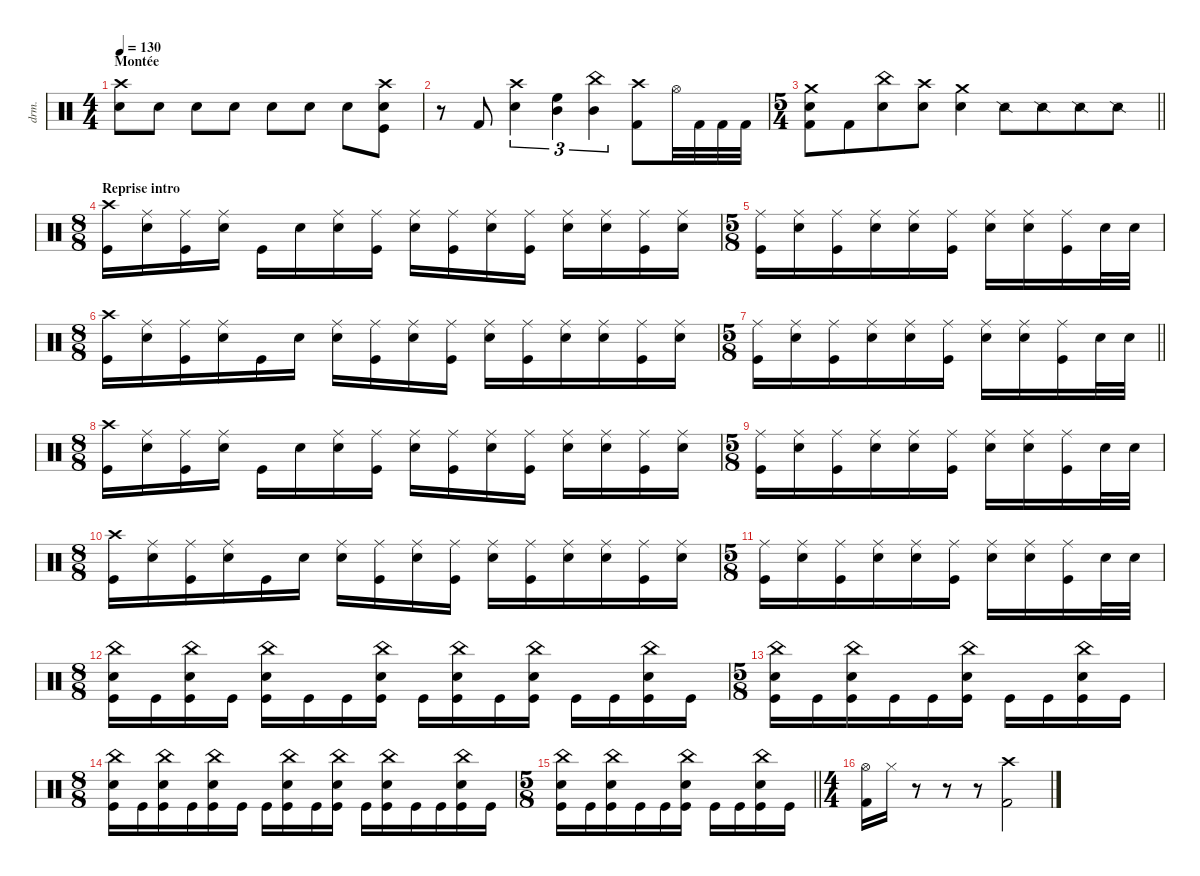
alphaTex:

\defaultSystemsLayout 4
\hideDynamics
\bracketExtendMode nobrackets
\track ("Manouche" "drm.") {instrument percussion}
\staff {score}
\articulation defaults
\ts (4 4)
\section ("" "Montée")
\tempo 130
\clef neutral
\ks c
("Crash high (hit)" "Snare (hit) 2").8{dy mf} "Snare (hit) 2".8{dy mp} "Snare (hit) 2".8 "Snare (hit) 2".8 "Snare (hit) 2".8{dy mf} "Snare (hit) 2".8 "Snare (hit) 2".8{dy f} ("Crash high (hit)" "Kick (hit)" "Snare (hit) 2").8 |
r.8 "Kick (hit) 2".8{dy ff} ("Snare (hit) 2" "Crash high (hit)").4{tu (3 2)} ("Mid Tom (hit)" "High Floor Tom (hit)").4{tu (3 2)} ("Mid Tom (hit)" "China (hit)").4{tu (3 2)} ("Crash high (hit)" "Kick (hit) 2").8{dy f} "Hi-Hat (open)".32{dy ff} "Kick (hit) 2".32{dy f} "Kick (hit) 2".32 "Kick (hit) 2".32 |
\ts (5 4)
\beaming (8 6 4)
\barLineRight lightlight
("Kick (hit) 2" "Snare (hit) 2" "Crash medium (hit)").8{dy ff} "Kick (hit) 2".8{dy f} ("Snare (hit) 2" "China (hit)").8 ("Snare (hit) 2" "Crash high (hit)").8 ("Snare (hit) 2" "Crash medium (hit)").4 "Snare (side stick) 2".8 "Snare (side stick) 2".8 "Snare (side stick) 2".8 "Snare (side stick) 2".8 |
\ts (8 8)
\beaming (8 2 2 2 2)
\section ("" "Reprise intro")
("Crash high (hit)" "Kick (hit)").16 ("Snare (hit) 2" "Ride (middle)").16 ("Kick (hit)" "Ride (middle)").16 ("Snare (hit) 2" "Ride (middle)").16 "Kick (hit)".16 "Snare (hit) 2".16 ("Snare (hit) 2" "Ride (middle)").16 ("Kick (hit)" "Ride (middle)").16 ("Snare (hit) 2" "Ride (middle)").16 ("Kick (hit)" "Ride (middle)").16 ("Snare (hit) 2" "Ride (middle)").16 ("Ride (middle)" "Kick (hit)").16 ("Snare (hit) 2" "Ride (middle)").16 ("Snare (hit) 2" "Ride (middle)").16 ("Kick (hit)" "Ride (middle)").16 ("Snare (hit) 2" "Ride (middle)").16 |
\ts (5 8)
\beaming (8 3 2)
("Kick (hit)" "Ride (middle)").16 ("Snare (hit) 2" "Ride (middle)").16 ("Kick (hit)" "Ride (middle)").16 ("Snare (hit) 2" "Ride (middle)").16 ("Snare (hit) 2" "Ride (middle)").16 ("Kick (hit)" "Ride (middle)").16 ("Snare (hit) 2" "Ride (middle)").16 ("Snare (hit) 2" "Ride (middle)").16 ("Kick (hit)" "Ride (middle)").16 "Snare (hit) 2".32 "Snare (hit) 2".32 |
\ts (8 8)
\beaming (8 3 2 3)
("Crash high (hit)" "Kick (hit)").16 ("Snare (hit) 2" "Ride (middle)").16 ("Kick (hit)" "Ride (middle)").16 ("Snare (hit) 2" "Ride (middle)").16 "Kick (hit)".16 "Snare (hit) 2".16 ("Snare (hit) 2" "Ride (middle)").16 ("Kick (hit)" "Ride (middle)").16 ("Snare (hit) 2" "Ride (middle)").16 ("Kick (hit)" "Ride (middle)").16 ("Snare (hit) 2" "Ride (middle)").16 ("Ride (middle)" "Kick (hit)").16 ("Snare (hit) 2" "Ride (middle)").16 ("Snare (hit) 2" "Ride (middle)").16 ("Kick (hit)" "Ride (middle)").16 ("Snare (hit) 2" "Ride (middle)").16 |
\ts (5 8)
\beaming (8 3 2)
\barLineRight lightlight
("Kick (hit)" "Ride (middle)").16 ("Snare (hit) 2" "Ride (middle)").16 ("Kick (hit)" "Ride (middle)").16 ("Snare (hit) 2" "Ride (middle)").16 ("Snare (hit) 2" "Ride (middle)").16 ("Kick (hit)" "Ride (middle)").16 ("Snare (hit) 2" "Ride (middle)").16 ("Snare (hit) 2" "Ride (middle)").16 ("Kick (hit)" "Ride (middle)").16 "Snare (hit) 2".32 "Snare (hit) 2".32 |
\ts (8 8)
\beaming (8 2 2 2 2)
("Crash high (hit)" "Kick (hit)").16 ("Snare (hit) 2" "Ride (middle)").16 ("Kick (hit)" "Ride (middle)").16 ("Snare (hit) 2" "Ride (middle)").16 "Kick (hit)".16 "Snare (hit) 2".16 ("Snare (hit) 2" "Ride (middle)").16 ("Kick (hit)" "Ride (middle)").16 ("Snare (hit) 2" "Ride (middle)").16 ("Kick (hit)" "Ride (middle)").16 ("Snare (hit) 2" "Ride (middle)").16 ("Ride (middle)" "Kick (hit)").16 ("Snare (hit) 2" "Ride (middle)").16 ("Snare (hit) 2" "Ride (middle)").16 ("Kick (hit)" "Ride (middle)").16 ("Snare (hit) 2" "Ride (middle)").16 |
\ts (5 8)
\beaming (8 3 2)
("Kick (hit)" "Ride (middle)").16 ("Snare (hit) 2" "Ride (middle)").16 ("Kick (hit)" "Ride (middle)").16 ("Snare (hit) 2" "Ride (middle)").16 ("Snare (hit) 2" "Ride (middle)").16 ("Kick (hit)" "Ride (middle)").16 ("Snare (hit) 2" "Ride (middle)").16 ("Snare (hit) 2" "Ride (middle)").16 ("Kick (hit)" "Ride (middle)").16 "Snare (hit) 2".32 "Snare (hit) 2".32 |
\ts (8 8)
\beaming (8 3 2 3)
("Crash high (hit)" "Kick (hit)").16 ("Snare (hit) 2" "Ride (middle)").16 ("Kick (hit)" "Ride (middle)").16 ("Snare (hit) 2" "Ride (middle)").16 "Kick (hit)".16 "Snare (hit) 2".16 ("Snare (hit) 2" "Ride (middle)").16 ("Kick (hit)" "Ride (middle)").16 ("Snare (hit) 2" "Ride (middle)").16 ("Kick (hit)" "Ride (middle)").16 ("Snare (hit) 2" "Ride (middle)").16 ("Ride (middle)" "Kick (hit)").16 ("Snare (hit) 2" "Ride (middle)").16 ("Snare (hit) 2" "Ride (middle)").16 ("Kick (hit)" "Ride (middle)").16 ("Snare (hit) 2" "Ride (middle)").16 |
\ts (5 8)
\beaming (8 3 2)
("Kick (hit)" "Ride (middle)").16 ("Snare (hit) 2" "Ride (middle)").16 ("Kick (hit)" "Ride (middle)").16 ("Snare (hit) 2" "Ride (middle)").16 ("Snare (hit) 2" "Ride (middle)").16 ("Kick (hit)" "Ride (middle)").16 ("Snare (hit) 2" "Ride (middle)").16 ("Snare (hit) 2" "Ride (middle)").16 ("Kick (hit)" "Ride (middle)").16 "Snare (hit) 2".32 "Snare (hit) 2".32 |
\ts (8 8)
\beaming (8 2 2 2 2)
("Snare (hit) 2" "China (hit)" "Kick (hit)").16 "Kick (hit)".16 ("Kick (hit)" "Snare (hit) 2" "China (hit)").16 "Kick (hit)".16 ("Kick (hit)" "Snare (hit) 2" "China (hit)").16 "Kick (hit)".16 "Kick (hit)".16 ("Kick (hit)" "Snare (hit) 2" "China (hit)").16 "Kick (hit)".16 ("Kick (hit)" "Snare (hit) 2" "China (hit)").16 "Kick (hit)".16 ("Kick (hit)" "Snare (hit) 2" "China (hit)").16 "Kick (hit)".16 "Kick (hit)".16 ("Kick (hit)" "Snare (hit) 2" "China (hit)").16 "Kick (hit)".16 |
\ts (5 8)
\beaming (8 3 2)
("Kick (hit)" "Snare (hit) 2" "China (hit)").16 "Kick (hit)".16 ("Kick (hit)" "Snare (hit) 2" "China (hit)").16 "Kick (hit)".16 "Kick (hit)".16 ("Kick (hit)" "Snare (hit) 2" "China (hit)").16 "Kick (hit)".16 "Kick (hit)".16 ("Kick (hit)" "Snare (hit) 2" "China (hit)").16 "Kick (hit)".16 |
\ts (8 8)
\beaming (8 3 2 3)
("Snare (hit) 2" "China (hit)" "Kick (hit)").16 "Kick (hit)".16 ("Kick (hit)" "Snare (hit) 2" "China (hit)").16 "Kick (hit)".16 ("Kick (hit)" "Snare (hit) 2" "China (hit)").16 "Kick (hit)".16 "Kick (hit)".16 ("Kick (hit)" "Snare (hit) 2" "China (hit)").16 "Kick (hit)".16 ("Kick (hit)" "Snare (hit) 2" "China (hit)").16 "Kick (hit)".16 ("Kick (hit)" "Snare (hit) 2" "China (hit)").16 "Kick (hit)".16 "Kick (hit)".16 ("Kick (hit)" "Snare (hit) 2" "China (hit)").16 "Kick (hit)".16 |
\ts (5 8)
\beaming (8 3 2)
\barLineRight lightlight
("Kick (hit)" "Snare (hit) 2" "China (hit)").16 "Kick (hit)".16 ("Kick (hit)" "Snare (hit) 2" "China (hit)").16 "Kick (hit)".16 "Kick (hit)".16 ("Kick (hit)" "Snare (hit) 2" "China (hit)").16 "Kick (hit)".16 "Kick (hit)".16 ("Kick (hit)" "Snare (hit) 2" "China (hit)").16 "Kick (hit)".16 |
\ts (4 4)
\beaming (8 2 2 2 2)
("Kick (hit) 2" "Hi-Hat (open)").16 "Hi-Hat (closed)".16 r.8 r.8 r.8 ("Kick (hit) 2" "Crash high (hit)").2{dy ff}
